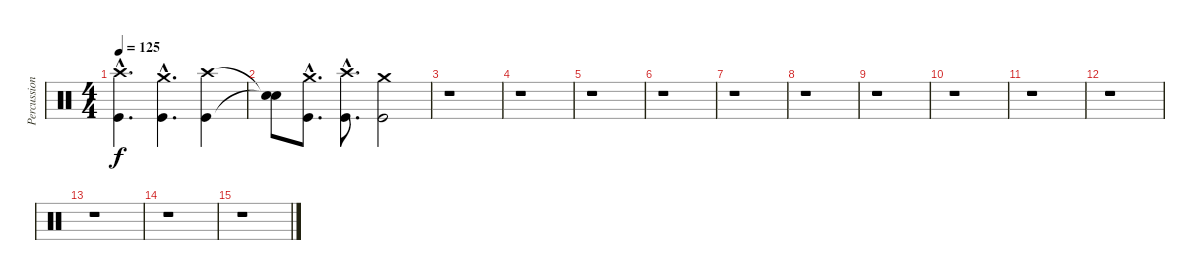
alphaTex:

\track ("Percussion" "Percussion") {instrument percussion}
\staff {score}
\articulation defaults
\ts (4 4)
\tempo 125
\clef neutral
\ks c
("Crash high (hit)"{hac} "Kick (hit)"{hac}).4{d dy f} ("Crash medium (hit)"{hac} "Kick (hit)"{hac}).4{d} ("Crash high (hit)" "Kick (hit)").4 |
("Snare (hit)"{t} "Snare (hit)"{t}).8 ("Crash medium (hit)"{hac} "Kick (hit)"{hac}).8{d} ("Crash high (hit)"{hac} "Kick (hit)"{hac}).8{d} ("Crash medium (hit)" "Kick (hit)").2 |
r.1 |
r.1 |
r.1 |
r.1 |
r.1 |
r.1 |
r.1 |
r.1 |
r.1 |
r.1 |
r.1 |
r.1 |
r.1
